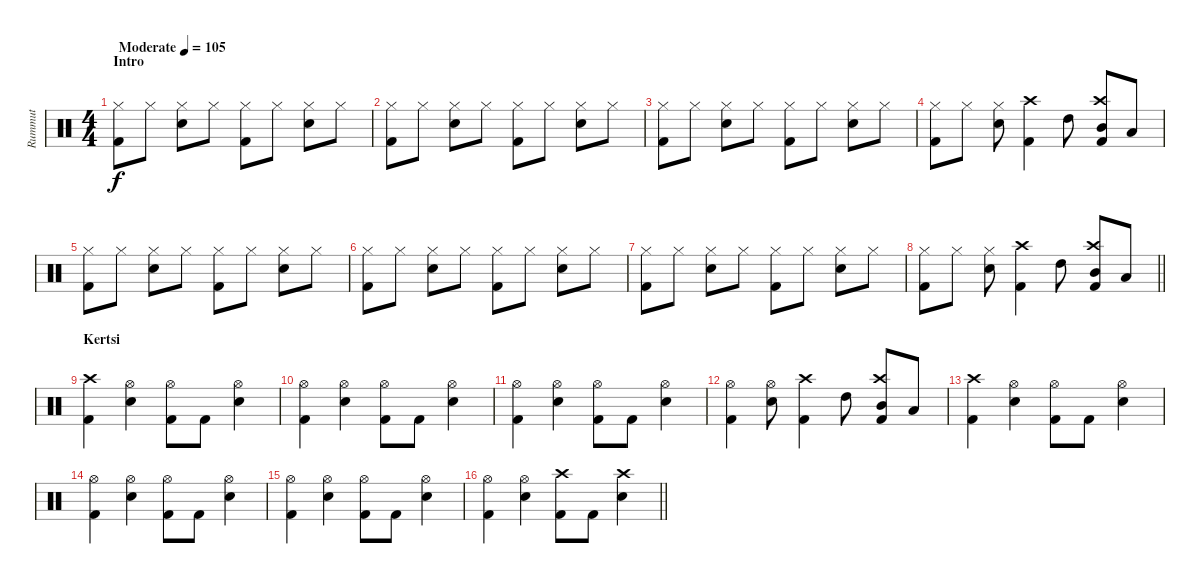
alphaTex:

\track ("Rummut" "Rummut") {instrument percussion}
\staff {score}
\articulation defaults
\ts (4 4)
\section ("" "Intro")
\tempo (105 "Moderate")
\clef neutral
\ks c
("Hi-Hat (closed)" "Kick (hit) 2").8{dy f} "Hi-Hat (closed)".8 ("Hi-Hat (closed)" "Snare (hit) 2").8 "Hi-Hat (closed)".8 ("Hi-Hat (closed)" "Kick (hit) 2").8 "Hi-Hat (closed)".8 ("Hi-Hat (closed)" "Snare (hit) 2").8 "Hi-Hat (closed)".8 |
("Hi-Hat (closed)" "Kick (hit) 2").8 "Hi-Hat (closed)".8 ("Hi-Hat (closed)" "Snare (hit) 2").8 "Hi-Hat (closed)".8 ("Hi-Hat (closed)" "Kick (hit) 2").8 "Hi-Hat (closed)".8 ("Hi-Hat (closed)" "Snare (hit) 2").8 "Hi-Hat (closed)".8 |
("Hi-Hat (closed)" "Kick (hit) 2").8 "Hi-Hat (closed)".8 ("Hi-Hat (closed)" "Snare (hit) 2").8 "Hi-Hat (closed)".8 ("Hi-Hat (closed)" "Kick (hit) 2").8 "Hi-Hat (closed)".8 ("Hi-Hat (closed)" "Snare (hit) 2").8 "Hi-Hat (closed)".8 |
("Hi-Hat (closed)" "Kick (hit) 2").8 "Hi-Hat (closed)".8 ("Hi-Hat (closed)" "Snare (hit) 2").8 ("Crash high (hit)" "Kick (hit) 2").4 "High Tom (hit)".8 ("Crash high (hit)" "Mid Tom (hit)" "Kick (hit) 2").8 "Low Tom (hit)".8 |
("Hi-Hat (closed)" "Kick (hit) 2").8 "Hi-Hat (closed)".8 ("Hi-Hat (closed)" "Snare (hit) 2").8 "Hi-Hat (closed)".8 ("Hi-Hat (closed)" "Kick (hit) 2").8 "Hi-Hat (closed)".8 ("Hi-Hat (closed)" "Snare (hit) 2").8 "Hi-Hat (closed)".8 |
("Hi-Hat (closed)" "Kick (hit) 2").8 "Hi-Hat (closed)".8 ("Hi-Hat (closed)" "Snare (hit) 2").8 "Hi-Hat (closed)".8 ("Hi-Hat (closed)" "Kick (hit) 2").8 "Hi-Hat (closed)".8 ("Hi-Hat (closed)" "Snare (hit) 2").8 "Hi-Hat (closed)".8 |
("Hi-Hat (closed)" "Kick (hit) 2").8 "Hi-Hat (closed)".8 ("Hi-Hat (closed)" "Snare (hit) 2").8 "Hi-Hat (closed)".8 ("Hi-Hat (closed)" "Kick (hit) 2").8 "Hi-Hat (closed)".8 ("Hi-Hat (closed)" "Snare (hit) 2").8 "Hi-Hat (closed)".8 |
\barLineRight lightlight
("Hi-Hat (closed)" "Kick (hit) 2").8 "Hi-Hat (closed)".8 ("Hi-Hat (closed)" "Snare (hit) 2").8 ("Crash high (hit)" "Kick (hit) 2").4 "High Tom (hit)".8 ("Crash high (hit)" "Mid Tom (hit)" "Kick (hit) 2").8 "Low Tom (hit)".8 |
\section ("" "Kertsi")
("Crash high (hit)" "Kick (hit) 2").4 ("Hi-Hat (open)" "Snare (hit) 2").4 ("Hi-Hat (open)" "Kick (hit) 2").8 "Kick (hit) 2".8 ("Hi-Hat (open)" "Snare (hit) 2").4 |
("Hi-Hat (open)" "Kick (hit) 2").4 ("Hi-Hat (open)" "Snare (hit) 2").4 ("Hi-Hat (open)" "Kick (hit) 2").8 "Kick (hit) 2".8 ("Hi-Hat (open)" "Snare (hit) 2").4 |
("Hi-Hat (open)" "Kick (hit) 2").4 ("Hi-Hat (open)" "Snare (hit) 2").4 ("Hi-Hat (open)" "Kick (hit) 2").8 "Kick (hit) 2".8 ("Hi-Hat (open)" "Snare (hit) 2").4 |
("Hi-Hat (open)" "Kick (hit) 2").4 ("Hi-Hat (open)" "Snare (hit) 2").8 ("Crash high (hit)" "Kick (hit) 2").4 "High Tom (hit)".8 ("Crash high (hit)" "Mid Tom (hit)" "Kick (hit) 2").8 "Low Tom (hit)".8 |
("Crash high (hit)" "Kick (hit) 2").4 ("Hi-Hat (open)" "Snare (hit) 2").4 ("Hi-Hat (open)" "Kick (hit) 2").8 "Kick (hit) 2".8 ("Hi-Hat (open)" "Snare (hit) 2").4 |
("Hi-Hat (open)" "Kick (hit) 2").4 ("Hi-Hat (open)" "Snare (hit) 2").4 ("Hi-Hat (open)" "Kick (hit) 2").8 "Kick (hit) 2".8 ("Hi-Hat (open)" "Snare (hit) 2").4 |
("Hi-Hat (open)" "Kick (hit) 2").4 ("Hi-Hat (open)" "Snare (hit) 2").4 ("Hi-Hat (open)" "Kick (hit) 2").8 "Kick (hit) 2".8 ("Hi-Hat (open)" "Snare (hit) 2").4 |
\barLineRight lightlight
("Hi-Hat (open)" "Kick (hit) 2").4 ("Hi-Hat (open)" "Snare (hit) 2").4 ("Crash high (hit)" "Kick (hit) 2").8 "Kick (hit) 2".8 ("Crash high (hit)" "Snare (hit) 2").4
